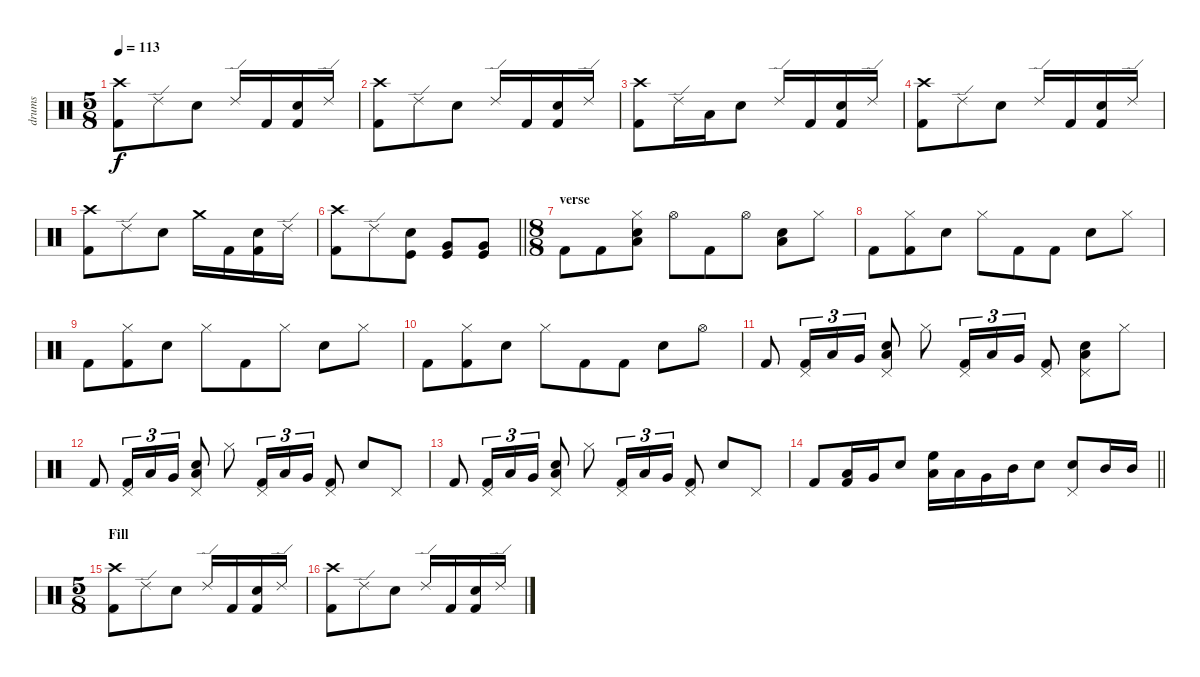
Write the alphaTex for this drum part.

\track ("drums" "drums") {instrument percussion}
\staff {score}
\articulation defaults
\ts (5 8)
\tempo 113
\clef neutral
\ks c
("Crash high (hit)" "Kick (hit) 2").8{dy f} "Ride (edge) 2".8 "Electric Snare (hit)".8 "Ride (edge) 2".16 "Kick (hit) 2".16 ("Electric Snare (hit)" "Kick (hit) 2").16 "Ride (edge) 2".16 |
("Crash high (hit)" "Kick (hit) 2").8 "Ride (edge) 2".8 "Electric Snare (hit)".8 "Ride (edge) 2".16 "Kick (hit) 2".16 ("Electric Snare (hit)" "Kick (hit) 2").16 "Ride (edge) 2".16 |
("Crash high (hit)" "Kick (hit) 2").8 "Ride (edge) 2".16 "Low Tom (hit)".16 "Electric Snare (hit)".8 "Ride (edge) 2".16 "Kick (hit) 2".16 ("Electric Snare (hit)" "Kick (hit) 2").16 "Ride (edge) 2".16 |
("Crash high (hit)" "Kick (hit) 2").8 "Ride (edge) 2".8 "Electric Snare (hit)".8 "Ride (edge) 2".16 "Kick (hit) 2".16 ("Electric Snare (hit)" "Kick (hit) 2").16 "Ride (edge) 2".16 |
("Crash high (hit)" "Kick (hit) 2").8 "Ride (edge) 2".8 "Electric Snare (hit)".8 "Crash medium (hit)".16 "Kick (hit) 2".16 ("Electric Snare (hit)" "Kick (hit) 2").16 "Ride (edge) 2".16 |
\barLineRight lightlight
("Crash high (hit)" "Kick (hit) 2").8 "Ride (edge) 2".8 ("Kick (hit)" "Electric Snare (hit)").8 ("Very Low Tom (hit)" "Kick (hit)").8 ("Very Low Tom (hit)" "Kick (hit)").8 |
\ts (8 8)
\section ("" "verse")
"Kick (hit) 2".8 "Kick (hit) 2".8 ("Low Tom (hit)" "Electric Snare (hit)" "Hi-Hat (closed)").8 "Hi-Hat (open)".8 "Kick (hit) 2".8 "Hi-Hat (open)".8 ("Low Tom (hit)" "Electric Snare (hit)").8 "Hi-Hat (closed)".8 |
"Kick (hit) 2".8 ("Kick (hit) 2" "Hi-Hat (closed)").8 "Electric Snare (hit)".8 "Hi-Hat (closed)".8 "Kick (hit) 2".8 "Kick (hit) 2".8 "Electric Snare (hit)".8 "Hi-Hat (closed)".8 |
"Kick (hit) 2".8 ("Kick (hit) 2" "Hi-Hat (closed)").8 "Electric Snare (hit)".8 "Hi-Hat (closed)".8 "Kick (hit) 2".8 "Hi-Hat (closed)".8 "Electric Snare (hit)".8 "Hi-Hat (closed)".8 |
"Kick (hit) 2".8 ("Kick (hit) 2" "Hi-Hat (closed)").8 "Electric Snare (hit)".8 "Hi-Hat (closed)".8 "Kick (hit) 2".8 "Kick (hit) 2".8 "Electric Snare (hit)".8 "Hi-Hat (open)".8 |
"Kick (hit) 2".8 ("Kick (hit) 2" "Pedal Hi-Hat (hit)").16{tu (3 2)} "Low Tom (hit)".16{tu (3 2)} "Very Low Tom (hit)".16{tu (3 2)} ("Low Tom (hit)" "Electric Snare (hit)" "Pedal Hi-Hat (hit)").8 "Hi-Hat (closed)".8 ("Kick (hit) 2" "Pedal Hi-Hat (hit)").16{tu (3 2)} "Low Tom (hit)".16{tu (3 2)} "Very Low Tom (hit)".16{tu (3 2)} ("Kick (hit) 2" "Pedal Hi-Hat (hit)").8 ("Low Tom (hit)" "Electric Snare (hit)" "Pedal Hi-Hat (hit)").8 "Hi-Hat (closed)".8 |
"Kick (hit) 2".8 ("Kick (hit) 2" "Pedal Hi-Hat (hit)").16{tu (3 2)} "Low Tom (hit)".16{tu (3 2)} "Very Low Tom (hit)".16{tu (3 2)} ("Low Tom (hit)" "Electric Snare (hit)" "Pedal Hi-Hat (hit)").8 "Hi-Hat (closed)".8 ("Kick (hit) 2" "Pedal Hi-Hat (hit)").16{tu (3 2)} "Low Tom (hit)".16{tu (3 2)} "Very Low Tom (hit)".16{tu (3 2)} ("Kick (hit) 2" "Pedal Hi-Hat (hit)").8 "Electric Snare (hit)".8 "Pedal Hi-Hat (hit)".8 |
"Kick (hit) 2".8 ("Kick (hit) 2" "Pedal Hi-Hat (hit)").16{tu (3 2)} "Low Tom (hit)".16{tu (3 2)} "Very Low Tom (hit)".16{tu (3 2)} ("Low Tom (hit)" "Electric Snare (hit)" "Pedal Hi-Hat (hit)").8 "Hi-Hat (closed)".8 ("Kick (hit) 2" "Pedal Hi-Hat (hit)").16{tu (3 2)} "Low Tom (hit)".16{tu (3 2)} "Very Low Tom (hit)".16{tu (3 2)} ("Kick (hit) 2" "Pedal Hi-Hat (hit)").8 "Electric Snare (hit)".8 "Pedal Hi-Hat (hit)".8 |
\barLineRight lightlight "Kick (hit) 2".8
("Kick (hit) 2" "Low Tom (hit)").16 "Very Low Tom (hit)".16 "Electric Snare (hit)".8 ("High Floor Tom (hit)" "Low Tom (hit)").16 "Low Tom (hit)".16 "Very Low Tom (hit)".16 "Mid Tom (hit)".16 "Electric Snare (hit)".8 ("Electric Snare (hit)" "Pedal Hi-Hat (hit)").8 "Mid Tom (hit)".16 "Mid Tom (hit)".16 |
\ts (5 8)
\section ("" "Fill")
("Crash high (hit)" "Kick (hit) 2").8 "Ride (edge) 2".8 "Electric Snare (hit)".8 "Ride (edge) 2".16 "Kick (hit) 2".16 ("Electric Snare (hit)" "Kick (hit) 2").16 "Ride (edge) 2".16 |
("Crash high (hit)" "Kick (hit) 2").8 "Ride (edge) 2".8 "Electric Snare (hit)".8 "Ride (edge) 2".16 "Kick (hit) 2".16 ("Electric Snare (hit)" "Kick (hit) 2").16 "Ride (edge) 2".16
